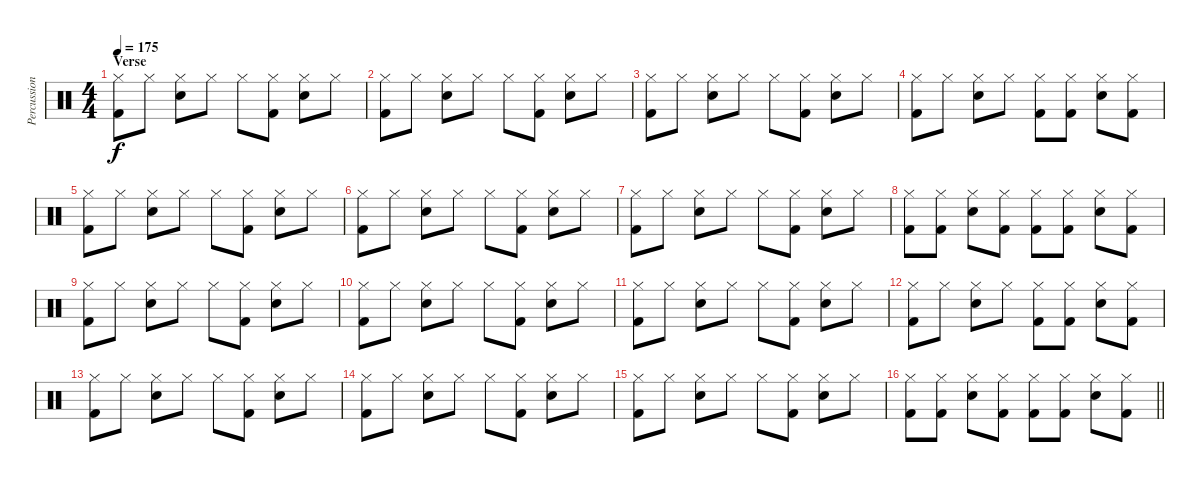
\track ("Percussion" "Percussion") {instrument percussion}
\staff {score}
\articulation defaults
\ts (4 4)
\section ("" "Verse")
\tempo 175
\clef neutral
\ks c
("Hi-Hat (closed)" "Kick (hit) 2").8{dy f} "Hi-Hat (closed)".8 ("Hi-Hat (closed)" "Snare (hit) 2").8 "Hi-Hat (closed)".8 "Hi-Hat (closed)".8 ("Hi-Hat (closed)" "Kick (hit) 2").8 ("Hi-Hat (closed)" "Snare (hit) 2").8 "Hi-Hat (closed)".8 |
("Hi-Hat (closed)" "Kick (hit) 2").8 "Hi-Hat (closed)".8 ("Hi-Hat (closed)" "Snare (hit) 2").8 "Hi-Hat (closed)".8 "Hi-Hat (closed)".8 ("Hi-Hat (closed)" "Kick (hit) 2").8 ("Hi-Hat (closed)" "Snare (hit) 2").8 "Hi-Hat (closed)".8 |
("Hi-Hat (closed)" "Kick (hit) 2").8 "Hi-Hat (closed)".8 ("Hi-Hat (closed)" "Snare (hit) 2").8 "Hi-Hat (closed)".8 "Hi-Hat (closed)".8 ("Hi-Hat (closed)" "Kick (hit) 2").8 ("Hi-Hat (closed)" "Snare (hit) 2").8 "Hi-Hat (closed)".8 |
("Hi-Hat (closed)" "Kick (hit) 2").8 "Hi-Hat (closed)".8 ("Hi-Hat (closed)" "Snare (hit) 2").8 "Hi-Hat (closed)".8 ("Hi-Hat (closed)" "Kick (hit) 2").8 ("Hi-Hat (closed)" "Kick (hit) 2").8 ("Hi-Hat (closed)" "Snare (hit) 2").8 ("Hi-Hat (closed)" "Kick (hit) 2").8 |
("Hi-Hat (closed)" "Kick (hit) 2").8 "Hi-Hat (closed)".8 ("Hi-Hat (closed)" "Snare (hit) 2").8 "Hi-Hat (closed)".8 "Hi-Hat (closed)".8 ("Hi-Hat (closed)" "Kick (hit) 2").8 ("Hi-Hat (closed)" "Snare (hit) 2").8 "Hi-Hat (closed)".8 |
("Hi-Hat (closed)" "Kick (hit) 2").8 "Hi-Hat (closed)".8 ("Hi-Hat (closed)" "Snare (hit) 2").8 "Hi-Hat (closed)".8 "Hi-Hat (closed)".8 ("Hi-Hat (closed)" "Kick (hit) 2").8 ("Hi-Hat (closed)" "Snare (hit) 2").8 "Hi-Hat (closed)".8 |
("Hi-Hat (closed)" "Kick (hit) 2").8 "Hi-Hat (closed)".8 ("Hi-Hat (closed)" "Snare (hit) 2").8 "Hi-Hat (closed)".8 "Hi-Hat (closed)".8 ("Hi-Hat (closed)" "Kick (hit) 2").8 ("Hi-Hat (closed)" "Snare (hit) 2").8 "Hi-Hat (closed)".8 |
("Hi-Hat (closed)" "Kick (hit) 2").8 ("Hi-Hat (closed)" "Kick (hit) 2").8 ("Hi-Hat (closed)" "Snare (hit) 2").8 ("Hi-Hat (closed)" "Kick (hit) 2").8 ("Hi-Hat (closed)" "Kick (hit) 2").8 ("Hi-Hat (closed)" "Kick (hit) 2").8 ("Hi-Hat (closed)" "Snare (hit) 2").8 ("Hi-Hat (closed)" "Kick (hit) 2").8 |
("Hi-Hat (closed)" "Kick (hit) 2").8 "Hi-Hat (closed)".8 ("Hi-Hat (closed)" "Snare (hit) 2").8 "Hi-Hat (closed)".8 "Hi-Hat (closed)".8 ("Hi-Hat (closed)" "Kick (hit) 2").8 ("Hi-Hat (closed)" "Snare (hit) 2").8 "Hi-Hat (closed)".8 |
("Hi-Hat (closed)" "Kick (hit) 2").8 "Hi-Hat (closed)".8 ("Hi-Hat (closed)" "Snare (hit) 2").8 "Hi-Hat (closed)".8 "Hi-Hat (closed)".8 ("Hi-Hat (closed)" "Kick (hit) 2").8 ("Hi-Hat (closed)" "Snare (hit) 2").8 "Hi-Hat (closed)".8 |
("Hi-Hat (closed)" "Kick (hit) 2").8 "Hi-Hat (closed)".8 ("Hi-Hat (closed)" "Snare (hit) 2").8 "Hi-Hat (closed)".8 "Hi-Hat (closed)".8 ("Hi-Hat (closed)" "Kick (hit) 2").8 ("Hi-Hat (closed)" "Snare (hit) 2").8 "Hi-Hat (closed)".8 |
("Hi-Hat (closed)" "Kick (hit) 2").8 "Hi-Hat (closed)".8 ("Hi-Hat (closed)" "Snare (hit) 2").8 "Hi-Hat (closed)".8 ("Hi-Hat (closed)" "Kick (hit) 2").8 ("Hi-Hat (closed)" "Kick (hit) 2").8 ("Hi-Hat (closed)" "Snare (hit) 2").8 ("Hi-Hat (closed)" "Kick (hit) 2").8 |
("Hi-Hat (closed)" "Kick (hit) 2").8 "Hi-Hat (closed)".8 ("Hi-Hat (closed)" "Snare (hit) 2").8 "Hi-Hat (closed)".8 "Hi-Hat (closed)".8 ("Hi-Hat (closed)" "Kick (hit) 2").8 ("Hi-Hat (closed)" "Snare (hit) 2").8 "Hi-Hat (closed)".8 |
("Hi-Hat (closed)" "Kick (hit) 2").8 "Hi-Hat (closed)".8 ("Hi-Hat (closed)" "Snare (hit) 2").8 "Hi-Hat (closed)".8 "Hi-Hat (closed)".8 ("Hi-Hat (closed)" "Kick (hit) 2").8 ("Hi-Hat (closed)" "Snare (hit) 2").8 "Hi-Hat (closed)".8 |
("Hi-Hat (closed)" "Kick (hit) 2").8 "Hi-Hat (closed)".8 ("Hi-Hat (closed)" "Snare (hit) 2").8 "Hi-Hat (closed)".8 "Hi-Hat (closed)".8 ("Hi-Hat (closed)" "Kick (hit) 2").8 ("Hi-Hat (closed)" "Snare (hit) 2").8 "Hi-Hat (closed)".8 |
\barLineRight lightlight
("Hi-Hat (closed)" "Kick (hit) 2").8 ("Hi-Hat (closed)" "Kick (hit) 2").8 ("Hi-Hat (closed)" "Snare (hit) 2").8 ("Hi-Hat (closed)" "Kick (hit) 2").8 ("Hi-Hat (closed)" "Kick (hit) 2").8 ("Hi-Hat (closed)" "Kick (hit) 2").8 ("Hi-Hat (closed)" "Snare (hit) 2").8 ("Hi-Hat (closed)" "Kick (hit) 2").8
